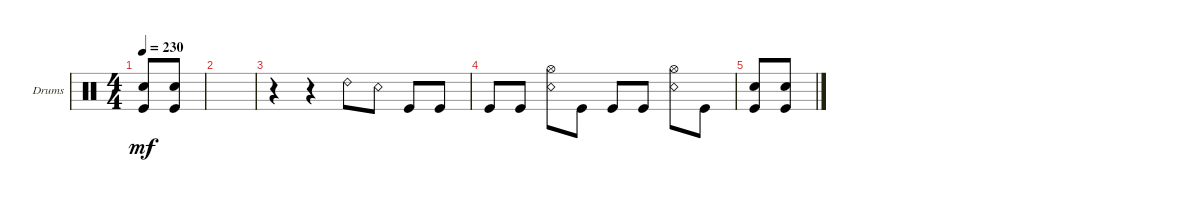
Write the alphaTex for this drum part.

\bracketExtendMode groupsimilarinstruments
\firstSystemTrackNameOrientation horizontal
\otherSystemsTrackNameOrientation horizontal
\track ("Drumkit" "Drums") {solo instrument percussion}
\staff {score}
\articulation defaults
\ts (4 4)
\tempo 230
\clef neutral
\ks c
("Kick (hit)" "Snare (hit) 2").8{dy mf} ("Kick (hit)" "Snare (hit) 2").8 |
|
r.4 r.4 "Ride (bell) 2".8 "Snare (rim shot)".8 "Kick (hit)".8 "Kick (hit)".8 |
"Kick (hit)".8 "Kick (hit)".8 ("Snare (rim shot)" "Hi-Hat (open)").8 "Kick (hit)".8 "Kick (hit)".8 "Kick (hit)".8 ("Snare (rim shot)" "Hi-Hat (open)").8 "Kick (hit)".8 |
("Kick (hit)" "Snare (hit) 2").8 ("Kick (hit)" "Snare (hit) 2").8
